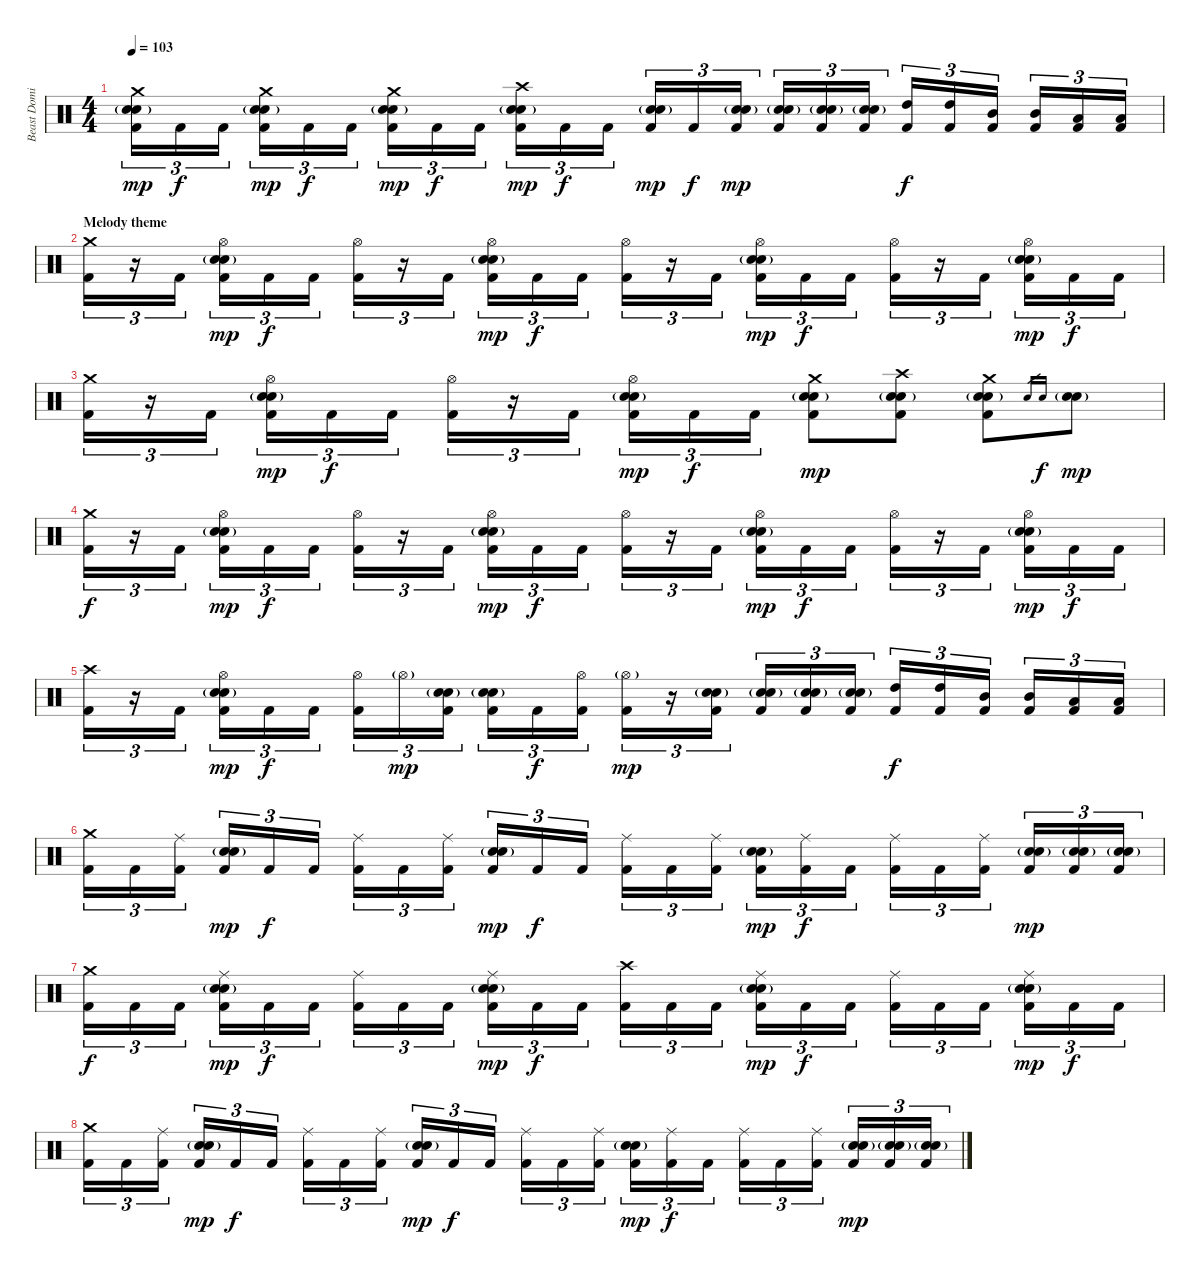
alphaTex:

\track ("Beast Dominator" "Beast Domi") {instrument percussion}
\staff {score}
\articulation defaults
\ts (4 4)
\tempo 103
\clef neutral
\ks c
("Crash medium (hit)" "Electric Snare (hit)"{g} "Snare (hit) 2" "Kick (hit) 2").16{tu (3 2) dy mp} "Kick (hit) 2".16{tu (3 2) dy f} "Kick (hit) 2".16{tu (3 2)} ("Crash medium (hit)" "Electric Snare (hit)"{g} "Snare (hit) 2" "Kick (hit) 2").16{tu (3 2) dy mp} "Kick (hit) 2".16{tu (3 2) dy f} "Kick (hit) 2".16{tu (3 2)} ("Crash medium (hit)" "Electric Snare (hit)"{g} "Snare (hit) 2" "Kick (hit) 2").16{tu (3 2) dy mp} "Kick (hit) 2".16{tu (3 2) dy f} "Kick (hit) 2".16{tu (3 2)} ("Crash high (hit)" "Electric Snare (hit)"{g} "Snare (hit) 2" "Kick (hit) 2").16{tu (3 2) dy mp} "Kick (hit) 2".16{tu (3 2) dy f} "Kick (hit) 2".16{tu (3 2)} ("Electric Snare (hit)"{g} "Snare (hit) 2" "Kick (hit) 2").16{tu (3 2) dy mp} "Kick (hit) 2".16{tu (3 2) dy f} ("Electric Snare (hit)"{g} "Snare (hit) 2" "Kick (hit) 2").16{tu (3 2) dy mp} ("Electric Snare (hit)"{g} "Snare (hit) 2" "Kick (hit) 2").16{tu (3 2)} ("Electric Snare (hit)"{g} "Snare (hit) 2" "Kick (hit) 2").16{tu (3 2)} ("Electric Snare (hit)"{g} "Snare (hit) 2" "Kick (hit) 2").16{tu (3 2)} ("High Tom (hit)" "Kick (hit) 2").16{tu (3 2) dy f} ("High Tom (hit)" "Kick (hit) 2").16{tu (3 2)} ("Mid Tom (hit)" "Kick (hit) 2").16{tu (3 2)} ("Mid Tom (hit)" "Kick (hit) 2").16{tu (3 2)} ("Low Tom (hit)" "Kick (hit) 2").16{tu (3 2)} ("Low Tom (hit)" "Kick (hit) 2").16{tu (3 2)} |
\section ("" "Melody theme")
("Crash medium (hit)" "Kick (hit) 2").16{tu (3 2)} r.16{tu (3 2)} "Kick (hit) 2".16{tu (3 2)} ("Hi-Hat (open)" "Electric Snare (hit)"{g} "Snare (hit) 2" "Kick (hit) 2").16{tu (3 2) dy mp} "Kick (hit) 2".16{tu (3 2) dy f} "Kick (hit) 2".16{tu (3 2)} ("Hi-Hat (open)" "Kick (hit) 2").16{tu (3 2)} r.16{tu (3 2)} "Kick (hit) 2".16{tu (3 2)} ("Hi-Hat (open)" "Electric Snare (hit)"{g} "Snare (hit) 2" "Kick (hit) 2").16{tu (3 2) dy mp} "Kick (hit) 2".16{tu (3 2) dy f} "Kick (hit) 2".16{tu (3 2)} ("Hi-Hat (open)" "Kick (hit) 2").16{tu (3 2)} r.16{tu (3 2)} "Kick (hit) 2".16{tu (3 2)} ("Hi-Hat (open)" "Electric Snare (hit)"{g} "Snare (hit) 2" "Kick (hit) 2").16{tu (3 2) dy mp} "Kick (hit) 2".16{tu (3 2) dy f} "Kick (hit) 2".16{tu (3 2)} ("Hi-Hat (open)" "Kick (hit) 2").16{tu (3 2)} r.16{tu (3 2)} "Kick (hit) 2".16{tu (3 2)} ("Hi-Hat (open)" "Electric Snare (hit)"{g} "Snare (hit) 2" "Kick (hit) 2").16{tu (3 2) dy mp} "Kick (hit) 2".16{tu (3 2) dy f} "Kick (hit) 2".16{tu (3 2)} |
("Crash medium (hit)" "Kick (hit) 2").16{tu (3 2)} r.16{tu (3 2)} "Kick (hit) 2".16{tu (3 2)} ("Hi-Hat (open)" "Electric Snare (hit)"{g} "Snare (hit) 2" "Kick (hit) 2").16{tu (3 2) dy mp} "Kick (hit) 2".16{tu (3 2) dy f} "Kick (hit) 2".16{tu (3 2)} ("Hi-Hat (open)" "Kick (hit) 2").16{tu (3 2)} r.16{tu (3 2)} "Kick (hit) 2".16{tu (3 2)} ("Hi-Hat (open)" "Electric Snare (hit)"{g} "Snare (hit) 2" "Kick (hit) 2").16{tu (3 2) dy mp} "Kick (hit) 2".16{tu (3 2) dy f} "Kick (hit) 2".16{tu (3 2)} ("Crash medium (hit)" "Electric Snare (hit)"{g} "Snare (hit) 2" "Kick (hit) 2").8{dy mp} ("Crash high (hit)" "Electric Snare (hit)"{g} "Snare (hit) 2" "Kick (hit) 2").8 ("Crash medium (hit)" "Electric Snare (hit)"{g} "Snare (hit) 2" "Kick (hit) 2").8 "Electric Snare (hit)".16{gr} "Snare (hit) 2".16{gr dy f} ("Electric Snare (hit)"{g} "Snare (hit) 2").8{dy mp} |
("Crash medium (hit)" "Kick (hit) 2").16{tu (3 2) dy f} r.16{tu (3 2)} "Kick (hit) 2".16{tu (3 2)} ("Hi-Hat (open)" "Electric Snare (hit)"{g} "Snare (hit) 2" "Kick (hit) 2").16{tu (3 2) dy mp} "Kick (hit) 2".16{tu (3 2) dy f} "Kick (hit) 2".16{tu (3 2)} ("Hi-Hat (open)" "Kick (hit) 2").16{tu (3 2)} r.16{tu (3 2)} "Kick (hit) 2".16{tu (3 2)} ("Hi-Hat (open)" "Electric Snare (hit)"{g} "Snare (hit) 2" "Kick (hit) 2").16{tu (3 2) dy mp} "Kick (hit) 2".16{tu (3 2) dy f} "Kick (hit) 2".16{tu (3 2)} ("Hi-Hat (open)" "Kick (hit) 2").16{tu (3 2)} r.16{tu (3 2)} "Kick (hit) 2".16{tu (3 2)} ("Hi-Hat (open)" "Electric Snare (hit)"{g} "Snare (hit) 2" "Kick (hit) 2").16{tu (3 2) dy mp} "Kick (hit) 2".16{tu (3 2) dy f} "Kick (hit) 2".16{tu (3 2)} ("Hi-Hat (open)" "Kick (hit) 2").16{tu (3 2)} r.16{tu (3 2)} "Kick (hit) 2".16{tu (3 2)} ("Hi-Hat (open)" "Electric Snare (hit)"{g} "Snare (hit) 2" "Kick (hit) 2").16{tu (3 2) dy mp} "Kick (hit) 2".16{tu (3 2) dy f} "Kick (hit) 2".16{tu (3 2)} |
("Crash high (hit)" "Kick (hit) 2").16{tu (3 2)} r.16{tu (3 2)} "Kick (hit) 2".16{tu (3 2)} ("Hi-Hat (open)" "Electric Snare (hit)"{g} "Snare (hit) 2" "Kick (hit) 2").16{tu (3 2) dy mp} "Kick (hit) 2".16{tu (3 2) dy f} "Kick (hit) 2".16{tu (3 2)} ("Hi-Hat (open)" "Kick (hit) 2").16{tu (3 2)} "Hi-Hat (open)"{g}.16{tu (3 2) dy mp} ("Electric Snare (hit)"{g} "Snare (hit) 2" "Kick (hit) 2").16{tu (3 2)} ("Electric Snare (hit)"{g} "Snare (hit) 2" "Kick (hit) 2").16{tu (3 2)} "Kick (hit) 2".16{tu (3 2) dy f} ("Hi-Hat (open)" "Kick (hit) 2").16{tu (3 2)} ("Hi-Hat (open)"{g} "Kick (hit) 2").16{tu (3 2) dy mp} r.16{tu (3 2)} ("Electric Snare (hit)"{g} "Snare (hit) 2" "Kick (hit) 2").16{tu (3 2)} ("Electric Snare (hit)"{g} "Snare (hit) 2" "Kick (hit) 2").16{tu (3 2)} ("Electric Snare (hit)"{g} "Snare (hit) 2" "Kick (hit) 2").16{tu (3 2)} ("Electric Snare (hit)"{g} "Snare (hit) 2" "Kick (hit) 2").16{tu (3 2)} ("High Tom (hit)" "Kick (hit) 2").16{tu (3 2) dy f} ("High Tom (hit)" "Kick (hit) 2").16{tu (3 2)} ("Mid Tom (hit)" "Kick (hit) 2").16{tu (3 2)} ("Mid Tom (hit)" "Kick (hit) 2").16{tu (3 2)} ("Low Tom (hit)" "Kick (hit) 2").16{tu (3 2)} ("Low Tom (hit)" "Kick (hit) 2").16{tu (3 2)} |
\section ("" "")
("Crash medium (hit)" "Kick (hit) 2").16{tu (3 2)} "Kick (hit) 2".16{tu (3 2)} ("Ride (middle)" "Kick (hit) 2").16{tu (3 2)} ("Electric Snare (hit)"{g} "Snare (hit) 2" "Kick (hit) 2").16{tu (3 2) dy mp} "Kick (hit) 2".16{tu (3 2) dy f} "Kick (hit) 2".16{tu (3 2)} ("Ride (middle)" "Kick (hit) 2").16{tu (3 2)} "Kick (hit) 2".16{tu (3 2)} ("Ride (middle)" "Kick (hit) 2").16{tu (3 2)} ("Electric Snare (hit)"{g} "Snare (hit) 2" "Kick (hit) 2").16{tu (3 2) dy mp} "Kick (hit) 2".16{tu (3 2) dy f} "Kick (hit) 2".16{tu (3 2)} ("Ride (middle)" "Kick (hit) 2").16{tu (3 2)} "Kick (hit) 2".16{tu (3 2)} ("Ride (middle)" "Kick (hit) 2").16{tu (3 2)} ("Electric Snare (hit)"{g} "Snare (hit) 2" "Kick (hit) 2").16{tu (3 2) dy mp} ("Ride (middle)" "Kick (hit) 2").16{tu (3 2) dy f} "Kick (hit) 2".16{tu (3 2)} ("Ride (middle)" "Kick (hit) 2").16{tu (3 2)} "Kick (hit) 2".16{tu (3 2)} ("Ride (middle)" "Kick (hit) 2").16{tu (3 2)} ("Electric Snare (hit)"{g} "Snare (hit) 2" "Kick (hit) 2").16{tu (3 2) dy mp} ("Electric Snare (hit)"{g} "Snare (hit) 2" "Kick (hit) 2").16{tu (3 2)} ("Electric Snare (hit)"{g} "Snare (hit) 2" "Kick (hit) 2").16{tu (3 2)} |
("Crash medium (hit)" "Kick (hit) 2").16{tu (3 2) dy f} "Kick (hit) 2".16{tu (3 2)} "Kick (hit) 2".16{tu (3 2)} ("Ride (middle)" "Electric Snare (hit)"{g} "Snare (hit) 2" "Kick (hit) 2").16{tu (3 2) dy mp} "Kick (hit) 2".16{tu (3 2) dy f} "Kick (hit) 2".16{tu (3 2)} ("Ride (middle)" "Kick (hit) 2").16{tu (3 2)} "Kick (hit) 2".16{tu (3 2)} "Kick (hit) 2".16{tu (3 2)} ("Ride (middle)" "Electric Snare (hit)"{g} "Snare (hit) 2" "Kick (hit) 2").16{tu (3 2) dy mp} "Kick (hit) 2".16{tu (3 2) dy f} "Kick (hit) 2".16{tu (3 2)} ("Crash high (hit)" "Kick (hit) 2").16{tu (3 2)} "Kick (hit) 2".16{tu (3 2)} "Kick (hit) 2".16{tu (3 2)} ("Ride (middle)" "Electric Snare (hit)"{g} "Snare (hit) 2" "Kick (hit) 2").16{tu (3 2) dy mp} "Kick (hit) 2".16{tu (3 2) dy f} "Kick (hit) 2".16{tu (3 2)} ("Ride (middle)" "Kick (hit) 2").16{tu (3 2)} "Kick (hit) 2".16{tu (3 2)} "Kick (hit) 2".16{tu (3 2)} ("Ride (middle)" "Electric Snare (hit)"{g} "Snare (hit) 2" "Kick (hit) 2").16{tu (3 2) dy mp} "Kick (hit) 2".16{tu (3 2) dy f} "Kick (hit) 2".16{tu (3 2)} |
("Crash medium (hit)" "Kick (hit) 2").16{tu (3 2)} "Kick (hit) 2".16{tu (3 2)} ("Ride (middle)" "Kick (hit) 2").16{tu (3 2)} ("Electric Snare (hit)"{g} "Snare (hit) 2" "Kick (hit) 2").16{tu (3 2) dy mp} "Kick (hit) 2".16{tu (3 2) dy f} "Kick (hit) 2".16{tu (3 2)} ("Ride (middle)" "Kick (hit) 2").16{tu (3 2)} "Kick (hit) 2".16{tu (3 2)} ("Ride (middle)" "Kick (hit) 2").16{tu (3 2)} ("Electric Snare (hit)"{g} "Snare (hit) 2" "Kick (hit) 2").16{tu (3 2) dy mp} "Kick (hit) 2".16{tu (3 2) dy f} "Kick (hit) 2".16{tu (3 2)} ("Ride (middle)" "Kick (hit) 2").16{tu (3 2)} "Kick (hit) 2".16{tu (3 2)} ("Ride (middle)" "Kick (hit) 2").16{tu (3 2)} ("Electric Snare (hit)"{g} "Snare (hit) 2" "Kick (hit) 2").16{tu (3 2) dy mp} ("Ride (middle)" "Kick (hit) 2").16{tu (3 2) dy f} "Kick (hit) 2".16{tu (3 2)} ("Ride (middle)" "Kick (hit) 2").16{tu (3 2)} "Kick (hit) 2".16{tu (3 2)} ("Ride (middle)" "Kick (hit) 2").16{tu (3 2)} ("Electric Snare (hit)"{g} "Snare (hit) 2" "Kick (hit) 2").16{tu (3 2) dy mp} ("Electric Snare (hit)"{g} "Snare (hit) 2" "Kick (hit) 2").16{tu (3 2)} ("Electric Snare (hit)"{g} "Snare (hit) 2" "Kick (hit) 2").16{tu (3 2)}
